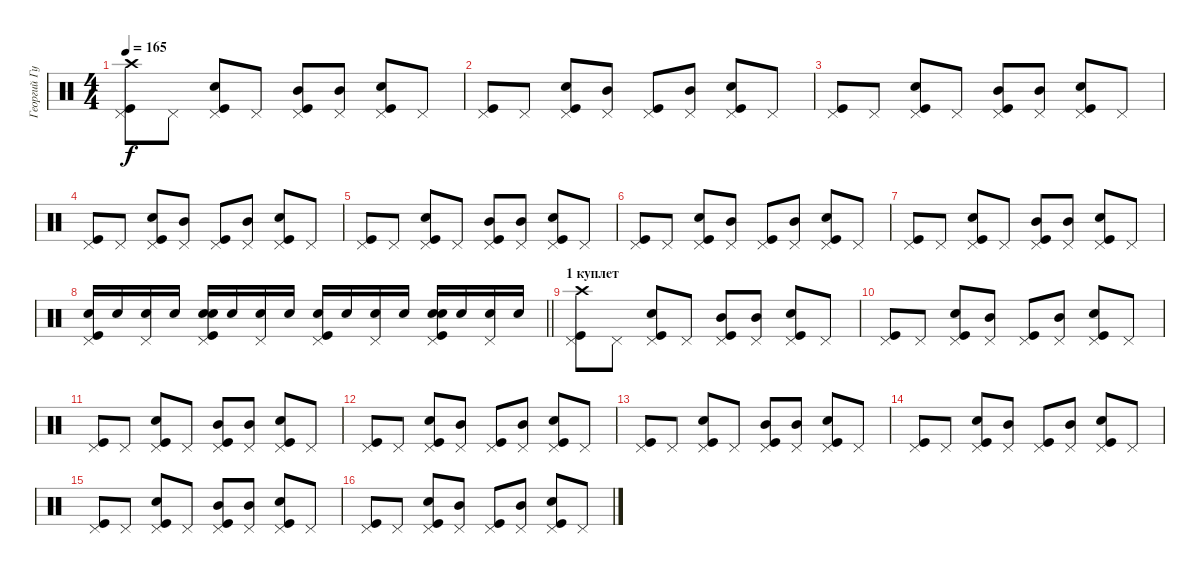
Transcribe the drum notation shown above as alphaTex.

\track ("Георгий Гурьянов" "Георгий Гу") {instrument percussion}
\staff {score}
\articulation defaults
\ts (4 4)
\tempo 165
\clef neutral
\ks c
("Pedal Hi-Hat (hit)" "Kick (hit)" "Crash high (hit)").8{dy f} "Pedal Hi-Hat (hit)".8 ("Pedal Hi-Hat (hit)" "Kick (hit)" "Snare (hit) 2").8 "Pedal Hi-Hat (hit)".8 ("Pedal Hi-Hat (hit)" "Kick (hit)" "Mid Tom (hit)").8 ("Pedal Hi-Hat (hit)" "Mid Tom (hit)").8 ("Pedal Hi-Hat (hit)" "Kick (hit)" "Snare (hit) 2").8 "Pedal Hi-Hat (hit)".8 |
("Pedal Hi-Hat (hit)" "Kick (hit)").8 "Pedal Hi-Hat (hit)".8 ("Pedal Hi-Hat (hit)" "Kick (hit)" "Snare (hit) 2").8 ("Pedal Hi-Hat (hit)" "Mid Tom (hit)").8 ("Pedal Hi-Hat (hit)" "Kick (hit)").8 ("Pedal Hi-Hat (hit)" "Mid Tom (hit)").8 ("Pedal Hi-Hat (hit)" "Kick (hit)" "Snare (hit) 2").8 "Pedal Hi-Hat (hit)".8 |
("Pedal Hi-Hat (hit)" "Kick (hit)").8 "Pedal Hi-Hat (hit)".8 ("Pedal Hi-Hat (hit)" "Kick (hit)" "Snare (hit) 2").8 "Pedal Hi-Hat (hit)".8 ("Pedal Hi-Hat (hit)" "Kick (hit)" "Mid Tom (hit)").8 ("Pedal Hi-Hat (hit)" "Mid Tom (hit)").8 ("Pedal Hi-Hat (hit)" "Kick (hit)" "Snare (hit) 2").8 "Pedal Hi-Hat (hit)".8 |
("Pedal Hi-Hat (hit)" "Kick (hit)").8 "Pedal Hi-Hat (hit)".8 ("Pedal Hi-Hat (hit)" "Kick (hit)" "Snare (hit) 2").8 ("Pedal Hi-Hat (hit)" "Mid Tom (hit)").8 ("Pedal Hi-Hat (hit)" "Kick (hit)").8 ("Pedal Hi-Hat (hit)" "Mid Tom (hit)").8 ("Pedal Hi-Hat (hit)" "Kick (hit)" "Snare (hit) 2").8 "Pedal Hi-Hat (hit)".8 |
("Pedal Hi-Hat (hit)" "Kick (hit)").8 "Pedal Hi-Hat (hit)".8 ("Pedal Hi-Hat (hit)" "Kick (hit)" "Snare (hit) 2").8 "Pedal Hi-Hat (hit)".8 ("Pedal Hi-Hat (hit)" "Kick (hit)" "Mid Tom (hit)").8 ("Pedal Hi-Hat (hit)" "Mid Tom (hit)").8 ("Pedal Hi-Hat (hit)" "Kick (hit)" "Snare (hit) 2").8 "Pedal Hi-Hat (hit)".8 |
("Pedal Hi-Hat (hit)" "Kick (hit)").8 "Pedal Hi-Hat (hit)".8 ("Pedal Hi-Hat (hit)" "Kick (hit)" "Snare (hit) 2").8 ("Pedal Hi-Hat (hit)" "Mid Tom (hit)").8 ("Pedal Hi-Hat (hit)" "Kick (hit)").8 ("Pedal Hi-Hat (hit)" "Mid Tom (hit)").8 ("Pedal Hi-Hat (hit)" "Kick (hit)" "Snare (hit) 2").8 "Pedal Hi-Hat (hit)".8 |
("Pedal Hi-Hat (hit)" "Kick (hit)").8 "Pedal Hi-Hat (hit)".8 ("Pedal Hi-Hat (hit)" "Kick (hit)" "Snare (hit) 2").8 "Pedal Hi-Hat (hit)".8 ("Pedal Hi-Hat (hit)" "Kick (hit)" "Mid Tom (hit)").8 ("Pedal Hi-Hat (hit)" "Mid Tom (hit)").8 ("Pedal Hi-Hat (hit)" "Kick (hit)" "Snare (hit) 2").8 "Pedal Hi-Hat (hit)".8 |
\barLineRight lightlight
("Electric Snare (hit)" "Kick (hit)" "Pedal Hi-Hat (hit)").16 "Electric Snare (hit)".16 ("Electric Snare (hit)" "Pedal Hi-Hat (hit)").16 "Electric Snare (hit)".16 ("Electric Snare (hit)" "Kick (hit)" "Pedal Hi-Hat (hit)" "Snare (hit) 2").16 "Electric Snare (hit)".16 ("Electric Snare (hit)" "Pedal Hi-Hat (hit)").16 "Electric Snare (hit)".16 ("Electric Snare (hit)" "Kick (hit)" "Pedal Hi-Hat (hit)").16 "Electric Snare (hit)".16 ("Electric Snare (hit)" "Pedal Hi-Hat (hit)").16 "Electric Snare (hit)".16 ("Electric Snare (hit)" "Kick (hit)" "Pedal Hi-Hat (hit)" "Snare (hit) 2").16 "Electric Snare (hit)".16 ("Electric Snare (hit)" "Pedal Hi-Hat (hit)").16 "Electric Snare (hit)".16 |
\section ("" "1 куплет")
("Pedal Hi-Hat (hit)" "Kick (hit)" "Crash high (hit)").8 "Pedal Hi-Hat (hit)".8 ("Pedal Hi-Hat (hit)" "Kick (hit)" "Snare (hit) 2").8 "Pedal Hi-Hat (hit)".8 ("Pedal Hi-Hat (hit)" "Kick (hit)" "Mid Tom (hit)").8 ("Pedal Hi-Hat (hit)" "Mid Tom (hit)").8 ("Pedal Hi-Hat (hit)" "Kick (hit)" "Snare (hit) 2").8 "Pedal Hi-Hat (hit)".8 |
("Pedal Hi-Hat (hit)" "Kick (hit)").8 "Pedal Hi-Hat (hit)".8 ("Pedal Hi-Hat (hit)" "Kick (hit)" "Snare (hit) 2").8 ("Pedal Hi-Hat (hit)" "Mid Tom (hit)").8 ("Pedal Hi-Hat (hit)" "Kick (hit)").8 ("Pedal Hi-Hat (hit)" "Mid Tom (hit)").8 ("Pedal Hi-Hat (hit)" "Kick (hit)" "Snare (hit) 2").8 "Pedal Hi-Hat (hit)".8 |
("Pedal Hi-Hat (hit)" "Kick (hit)").8 "Pedal Hi-Hat (hit)".8 ("Pedal Hi-Hat (hit)" "Kick (hit)" "Snare (hit) 2").8 "Pedal Hi-Hat (hit)".8 ("Pedal Hi-Hat (hit)" "Kick (hit)" "Mid Tom (hit)").8 ("Pedal Hi-Hat (hit)" "Mid Tom (hit)").8 ("Pedal Hi-Hat (hit)" "Kick (hit)" "Snare (hit) 2").8 "Pedal Hi-Hat (hit)".8 |
("Pedal Hi-Hat (hit)" "Kick (hit)").8 "Pedal Hi-Hat (hit)".8 ("Pedal Hi-Hat (hit)" "Kick (hit)" "Snare (hit) 2").8 ("Pedal Hi-Hat (hit)" "Mid Tom (hit)").8 ("Pedal Hi-Hat (hit)" "Kick (hit)").8 ("Pedal Hi-Hat (hit)" "Mid Tom (hit)").8 ("Pedal Hi-Hat (hit)" "Kick (hit)" "Snare (hit) 2").8 "Pedal Hi-Hat (hit)".8 |
("Pedal Hi-Hat (hit)" "Kick (hit)").8 "Pedal Hi-Hat (hit)".8 ("Pedal Hi-Hat (hit)" "Kick (hit)" "Snare (hit) 2").8 "Pedal Hi-Hat (hit)".8 ("Pedal Hi-Hat (hit)" "Kick (hit)" "Mid Tom (hit)").8 ("Pedal Hi-Hat (hit)" "Mid Tom (hit)").8 ("Pedal Hi-Hat (hit)" "Kick (hit)" "Snare (hit) 2").8 "Pedal Hi-Hat (hit)".8 |
("Pedal Hi-Hat (hit)" "Kick (hit)").8 "Pedal Hi-Hat (hit)".8 ("Pedal Hi-Hat (hit)" "Kick (hit)" "Snare (hit) 2").8 ("Pedal Hi-Hat (hit)" "Mid Tom (hit)").8 ("Pedal Hi-Hat (hit)" "Kick (hit)").8 ("Pedal Hi-Hat (hit)" "Mid Tom (hit)").8 ("Pedal Hi-Hat (hit)" "Kick (hit)" "Snare (hit) 2").8 "Pedal Hi-Hat (hit)".8 |
("Pedal Hi-Hat (hit)" "Kick (hit)").8 "Pedal Hi-Hat (hit)".8 ("Pedal Hi-Hat (hit)" "Kick (hit)" "Snare (hit) 2").8 "Pedal Hi-Hat (hit)".8 ("Pedal Hi-Hat (hit)" "Kick (hit)" "Mid Tom (hit)").8 ("Pedal Hi-Hat (hit)" "Mid Tom (hit)").8 ("Pedal Hi-Hat (hit)" "Kick (hit)" "Snare (hit) 2").8 "Pedal Hi-Hat (hit)".8 |
("Pedal Hi-Hat (hit)" "Kick (hit)").8 "Pedal Hi-Hat (hit)".8 ("Pedal Hi-Hat (hit)" "Kick (hit)" "Snare (hit) 2").8 ("Pedal Hi-Hat (hit)" "Mid Tom (hit)").8 ("Pedal Hi-Hat (hit)" "Kick (hit)").8 ("Pedal Hi-Hat (hit)" "Mid Tom (hit)").8 ("Pedal Hi-Hat (hit)" "Kick (hit)" "Snare (hit) 2").8 "Pedal Hi-Hat (hit)".8
